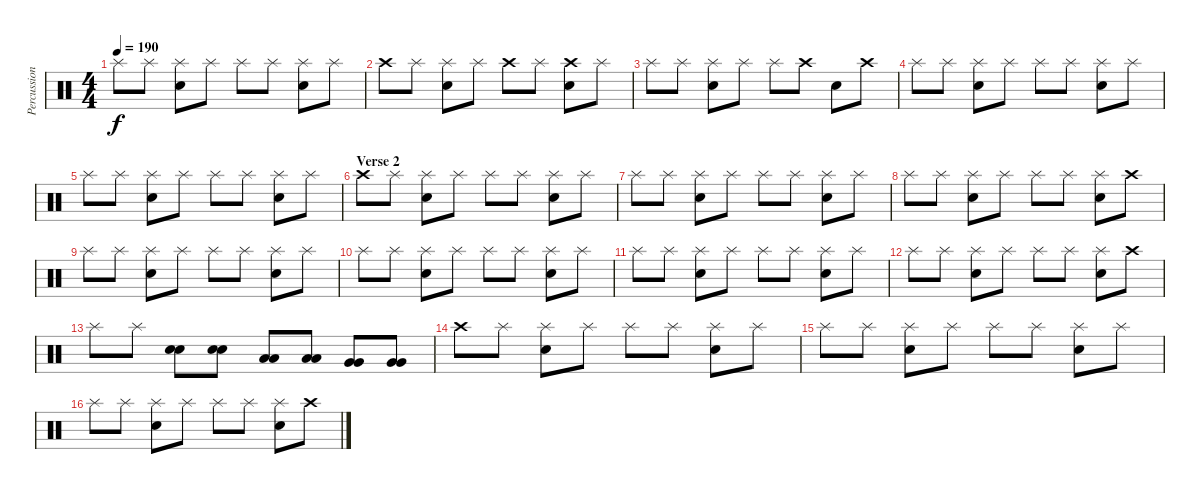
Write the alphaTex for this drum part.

\track ("Percussion" "Percussion") {instrument percussion}
\staff {score}
\articulation defaults
\ts (4 4)
\tempo 190
\clef neutral
\ks c "Splash (hit)".8{dy f} "Splash (hit)".8
("Splash (hit)" "Electric Snare (hit)").8 "Splash (hit)".8 "Splash (hit)".8 "Splash (hit)".8 ("Splash (hit)" "Electric Snare (hit)").8 "Splash (hit)".8 |
"Crash high (hit)".8 "Splash (hit)".8 ("Splash (hit)" "Electric Snare (hit)").8 "Splash (hit)".8 "Crash high (hit)".8 "Splash (hit)".8 ("Crash high (hit)" "Electric Snare (hit)").8 "Splash (hit)".8 |
"Splash (hit)".8 "Splash (hit)".8 ("Splash (hit)" "Electric Snare (hit)").8 "Splash (hit)".8 "Splash (hit)".8 "Crash high (hit)".8 "Electric Snare (hit)".8 "Crash high (hit)".8 |
"Splash (hit)".8 "Splash (hit)".8 ("Splash (hit)" "Electric Snare (hit)").8 "Splash (hit)".8 "Splash (hit)".8 "Splash (hit)".8 ("Splash (hit)" "Electric Snare (hit)").8 "Splash (hit)".8 |
"Splash (hit)".8 "Splash (hit)".8 ("Splash (hit)" "Electric Snare (hit)").8 "Splash (hit)".8 "Splash (hit)".8 "Splash (hit)".8 ("Splash (hit)" "Electric Snare (hit)").8 "Splash (hit)".8 |
\section ("" "Verse 2")
"Crash high (hit)".8 "Splash (hit)".8 ("Splash (hit)" "Electric Snare (hit)").8 "Splash (hit)".8 "Splash (hit)".8 "Splash (hit)".8 ("Splash (hit)" "Electric Snare (hit)").8 "Splash (hit)".8 |
"Splash (hit)".8 "Splash (hit)".8 ("Splash (hit)" "Electric Snare (hit)").8 "Splash (hit)".8 "Splash (hit)".8 "Splash (hit)".8 ("Splash (hit)" "Electric Snare (hit)").8 "Splash (hit)".8 |
"Splash (hit)".8 "Splash (hit)".8 ("Splash (hit)" "Electric Snare (hit)").8 "Splash (hit)".8 "Splash (hit)".8 "Splash (hit)".8 ("Splash (hit)" "Electric Snare (hit)").8 "Crash high (hit)".8 |
"Splash (hit)".8 "Splash (hit)".8 ("Splash (hit)" "Electric Snare (hit)").8 "Splash (hit)".8 "Splash (hit)".8 "Splash (hit)".8 ("Splash (hit)" "Electric Snare (hit)").8 "Splash (hit)".8 |
"Splash (hit)".8 "Splash (hit)".8 ("Splash (hit)" "Electric Snare (hit)").8 "Splash (hit)".8 "Splash (hit)".8 "Splash (hit)".8 ("Splash (hit)" "Electric Snare (hit)").8 "Splash (hit)".8 |
"Splash (hit)".8 "Splash (hit)".8 ("Splash (hit)" "Electric Snare (hit)").8 "Splash (hit)".8 "Splash (hit)".8 "Splash (hit)".8 ("Splash (hit)" "Electric Snare (hit)").8 "Splash (hit)".8 |
"Splash (hit)".8 "Splash (hit)".8 ("Splash (hit)" "Electric Snare (hit)").8 "Splash (hit)".8 "Splash (hit)".8 "Splash (hit)".8 ("Splash (hit)" "Electric Snare (hit)").8 "Crash high (hit)".8 |
"Splash (hit)".8 "Splash (hit)".8 ("Snare (hit) 2" "Snare (hit) 2").8 ("Snare (hit) 2" "Snare (hit) 2").8 ("Low Floor Tom (hit)" "Low Floor Tom (hit)").8 ("Low Floor Tom (hit)" "Low Floor Tom (hit)").8 ("Very Low Tom (hit)" "Very Low Tom (hit)").8 ("Very Low Tom (hit)" "Very Low Tom (hit)").8 |
"Crash high (hit)".8 "Splash (hit)".8 ("Splash (hit)" "Electric Snare (hit)").8 "Splash (hit)".8 "Splash (hit)".8 "Splash (hit)".8 ("Splash (hit)" "Electric Snare (hit)").8 "Splash (hit)".8 |
"Splash (hit)".8 "Splash (hit)".8 ("Splash (hit)" "Electric Snare (hit)").8 "Splash (hit)".8 "Splash (hit)".8 "Splash (hit)".8 ("Splash (hit)" "Electric Snare (hit)").8 "Splash (hit)".8 |
"Splash (hit)".8 "Splash (hit)".8 ("Splash (hit)" "Electric Snare (hit)").8 "Splash (hit)".8 "Splash (hit)".8 "Splash (hit)".8 ("Splash (hit)" "Electric Snare (hit)").8 "Crash high (hit)".8
